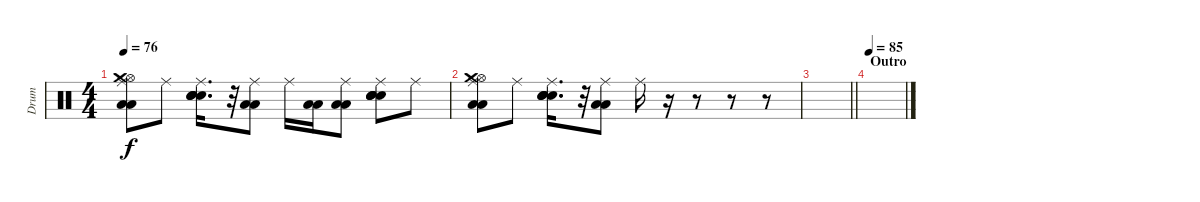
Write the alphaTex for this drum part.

\track ("Drum" "Drum") {instrument percussion}
\staff {score}
\articulation defaults
\ts (4 4)
\tempo 76
\clef neutral
\ks c
("Hi-Hat (open)" "Low Floor Tom (hit)" "Low Floor Tom (hit)" "Ride (middle)" "Crash medium (hit)").8{dy f} "Ride (middle)".8 ("Electric Snare (hit)" "Electric Snare (hit)" "Snare (hit) 2" "Ride (middle)" "Snare (hit) 2").16{d} r.32 ("Low Floor Tom (hit)" "Low Floor Tom (hit)" "Ride (middle)").8 "Ride (middle)".16 ("Low Floor Tom (hit)" "Low Floor Tom (hit)").16 ("Low Floor Tom (hit)" "Low Floor Tom (hit)" "Ride (middle)").8 ("Electric Snare (hit)" "Electric Snare (hit)" "Snare (hit) 2" "Ride (middle)" "Snare (hit) 2").8 "Ride (middle)".8 |
("Hi-Hat (open)" "Low Floor Tom (hit)" "Low Floor Tom (hit)" "Ride (middle)" "Crash medium (hit)").8 "Ride (middle)".8 ("Electric Snare (hit)" "Electric Snare (hit)" "Snare (hit) 2" "Ride (middle)" "Snare (hit) 2").16{d} r.32 ("Low Floor Tom (hit)" "Low Floor Tom (hit)" "Ride (middle)").8 "Ride (middle)".16 r.16 r.8 r.8 r.8 |
\barLineRight lightlight
|
\section ("" "Outro")
\tempo 85
